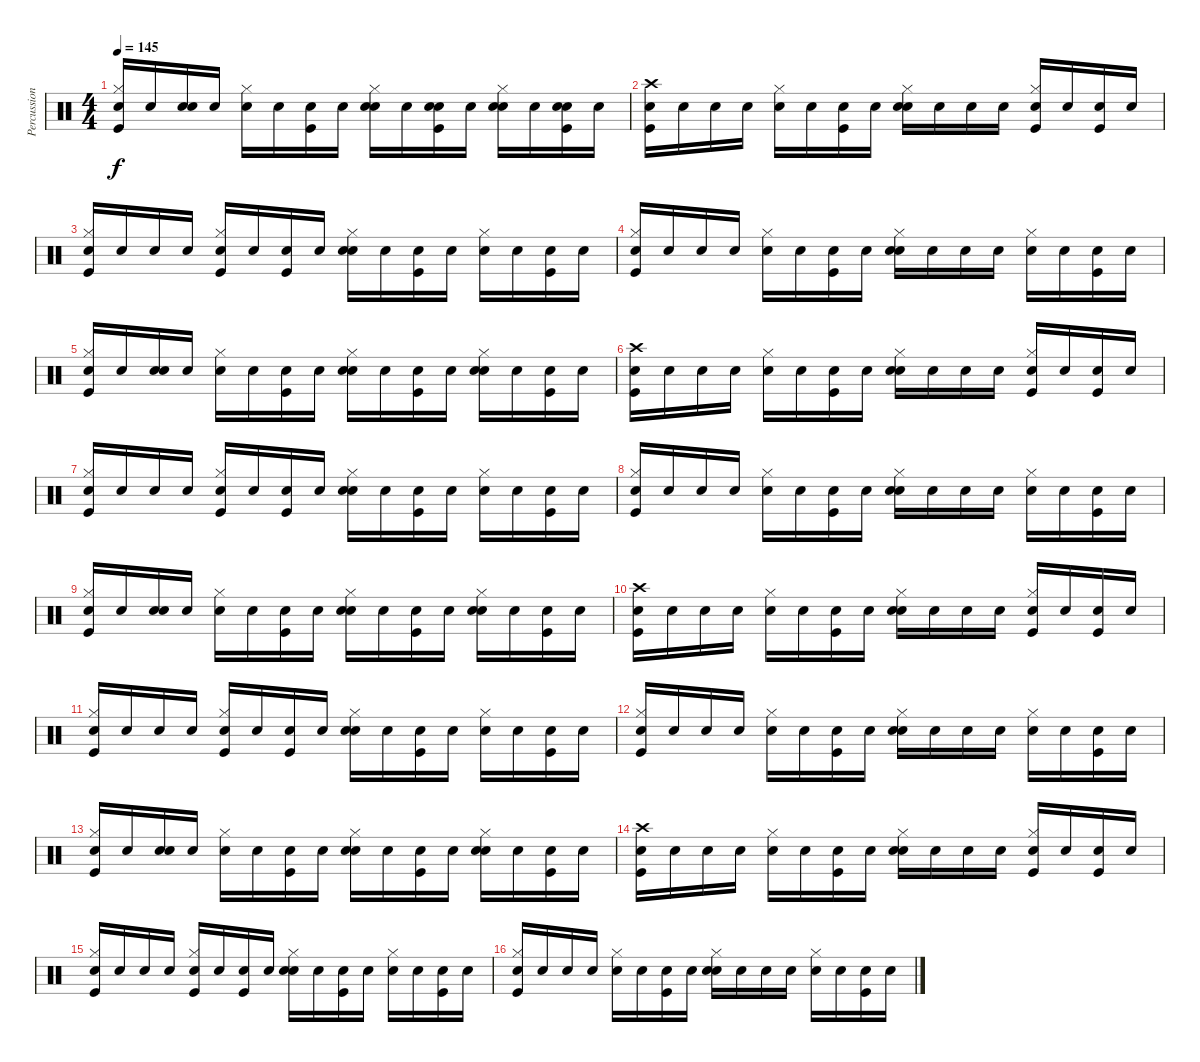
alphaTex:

\track ("Percussion" "Percussion") {instrument percussion}
\staff {score}
\articulation defaults
\ts (4 4)
\tempo 145
\clef neutral
\ks c
("Snare (hit)" "Hi-Hat (closed)" "Kick (hit)").16{dy f} "Snare (hit)".16 ("Snare (hit)" "Snare (hit) 2").16 "Snare (hit)".16 ("Snare (hit)" "Hi-Hat (closed)").16 "Snare (hit)".16 ("Snare (hit)" "Kick (hit)").16 "Snare (hit)".16 ("Snare (hit)" "Snare (hit) 2" "Hi-Hat (closed)").16 "Snare (hit)".16 ("Snare (hit)" "Snare (hit) 2" "Kick (hit)").16 "Snare (hit)".16 ("Snare (hit)" "Snare (hit) 2" "Hi-Hat (closed)").16 "Snare (hit)".16 ("Snare (hit)" "Snare (hit) 2" "Kick (hit)").16 "Snare (hit)".16 |
("Snare (hit)" "Crash high (hit)" "Kick (hit)").16 "Snare (hit)".16 "Snare (hit)".16 "Snare (hit)".16 ("Snare (hit)" "Hi-Hat (closed)").16 "Snare (hit)".16 ("Snare (hit)" "Kick (hit)").16 "Snare (hit)".16 ("Snare (hit)" "Hi-Hat (closed)" "Snare (hit) 2").16 "Snare (hit)".16 "Snare (hit)".16 "Snare (hit)".16 ("Snare (hit)" "Hi-Hat (closed)" "Kick (hit)").16 "Snare (hit)".16 ("Snare (hit)" "Kick (hit)").16 "Snare (hit)".16 |
("Snare (hit)" "Hi-Hat (closed)" "Kick (hit)").16 "Snare (hit)".16 "Snare (hit)".16 "Snare (hit)".16 ("Snare (hit)" "Hi-Hat (closed)" "Kick (hit)").16 "Snare (hit)".16 ("Snare (hit)" "Kick (hit)").16 "Snare (hit)".16 ("Snare (hit)" "Hi-Hat (closed)" "Snare (hit) 2").16 "Snare (hit)".16 ("Snare (hit)" "Kick (hit)").16 "Snare (hit)".16 ("Snare (hit)" "Hi-Hat (closed)").16 "Snare (hit)".16 ("Snare (hit)" "Kick (hit)").16 "Snare (hit)".16 |
("Snare (hit)" "Hi-Hat (closed)" "Kick (hit)").16 "Snare (hit)".16 "Snare (hit)".16 "Snare (hit)".16 ("Snare (hit)" "Hi-Hat (closed)").16 "Snare (hit)".16 ("Snare (hit)" "Kick (hit)").16 "Snare (hit)".16 ("Snare (hit)" "Hi-Hat (closed)" "Snare (hit) 2").16 "Snare (hit)".16 "Snare (hit)".16 "Snare (hit)".16 ("Snare (hit)" "Hi-Hat (closed)").16 "Snare (hit)".16 ("Snare (hit)" "Kick (hit)").16 "Snare (hit)".16 |
("Snare (hit)" "Hi-Hat (closed)" "Kick (hit)").16 "Snare (hit)".16 ("Snare (hit)" "Snare (hit) 2").16 "Snare (hit)".16 ("Snare (hit)" "Hi-Hat (closed)").16 "Snare (hit)".16 ("Snare (hit)" "Kick (hit)").16 "Snare (hit)".16 ("Snare (hit)" "Snare (hit) 2" "Hi-Hat (closed)").16 "Snare (hit)".16 ("Snare (hit)" "Kick (hit)").16 "Snare (hit)".16 ("Snare (hit)" "Snare (hit) 2" "Hi-Hat (closed)").16 "Snare (hit)".16 ("Snare (hit)" "Kick (hit)").16 "Snare (hit)".16 |
("Snare (hit)" "Crash high (hit)" "Kick (hit)").16 "Snare (hit)".16 "Snare (hit)".16 "Snare (hit)".16 ("Snare (hit)" "Hi-Hat (closed)").16 "Snare (hit)".16 ("Snare (hit)" "Kick (hit)").16 "Snare (hit)".16 ("Snare (hit)" "Hi-Hat (closed)" "Snare (hit) 2").16 "Snare (hit)".16 "Snare (hit)".16 "Snare (hit)".16 ("Snare (hit)" "Hi-Hat (closed)" "Kick (hit)").16 "Snare (hit)".16 ("Snare (hit)" "Kick (hit)").16 "Snare (hit)".16 |
("Snare (hit)" "Hi-Hat (closed)" "Kick (hit)").16 "Snare (hit)".16 "Snare (hit)".16 "Snare (hit)".16 ("Snare (hit)" "Hi-Hat (closed)" "Kick (hit)").16 "Snare (hit)".16 ("Snare (hit)" "Kick (hit)").16 "Snare (hit)".16 ("Snare (hit)" "Hi-Hat (closed)" "Snare (hit) 2").16 "Snare (hit)".16 ("Snare (hit)" "Kick (hit)").16 "Snare (hit)".16 ("Snare (hit)" "Hi-Hat (closed)").16 "Snare (hit)".16 ("Snare (hit)" "Kick (hit)").16 "Snare (hit)".16 |
("Snare (hit)" "Hi-Hat (closed)" "Kick (hit)").16 "Snare (hit)".16 "Snare (hit)".16 "Snare (hit)".16 ("Snare (hit)" "Hi-Hat (closed)").16 "Snare (hit)".16 ("Snare (hit)" "Kick (hit)").16 "Snare (hit)".16 ("Snare (hit)" "Hi-Hat (closed)" "Snare (hit) 2").16 "Snare (hit)".16 "Snare (hit)".16 "Snare (hit)".16 ("Snare (hit)" "Hi-Hat (closed)").16 "Snare (hit)".16 ("Snare (hit)" "Kick (hit)").16 "Snare (hit)".16 |
("Snare (hit)" "Hi-Hat (closed)" "Kick (hit)").16 "Snare (hit)".16 ("Snare (hit)" "Snare (hit) 2").16 "Snare (hit)".16 ("Snare (hit)" "Hi-Hat (closed)").16 "Snare (hit)".16 ("Snare (hit)" "Kick (hit)").16 "Snare (hit)".16 ("Snare (hit)" "Snare (hit) 2" "Hi-Hat (closed)").16 "Snare (hit)".16 ("Snare (hit)" "Kick (hit)").16 "Snare (hit)".16 ("Snare (hit)" "Snare (hit) 2" "Hi-Hat (closed)").16 "Snare (hit)".16 ("Snare (hit)" "Kick (hit)").16 "Snare (hit)".16 |
("Snare (hit)" "Crash high (hit)" "Kick (hit)").16 "Snare (hit)".16 "Snare (hit)".16 "Snare (hit)".16 ("Snare (hit)" "Hi-Hat (closed)").16 "Snare (hit)".16 ("Snare (hit)" "Kick (hit)").16 "Snare (hit)".16 ("Snare (hit)" "Hi-Hat (closed)" "Snare (hit) 2").16 "Snare (hit)".16 "Snare (hit)".16 "Snare (hit)".16 ("Snare (hit)" "Hi-Hat (closed)" "Kick (hit)").16 "Snare (hit)".16 ("Snare (hit)" "Kick (hit)").16 "Snare (hit)".16 |
("Snare (hit)" "Hi-Hat (closed)" "Kick (hit)").16 "Snare (hit)".16 "Snare (hit)".16 "Snare (hit)".16 ("Snare (hit)" "Hi-Hat (closed)" "Kick (hit)").16 "Snare (hit)".16 ("Snare (hit)" "Kick (hit)").16 "Snare (hit)".16 ("Snare (hit)" "Hi-Hat (closed)" "Snare (hit) 2").16 "Snare (hit)".16 ("Snare (hit)" "Kick (hit)").16 "Snare (hit)".16 ("Snare (hit)" "Hi-Hat (closed)").16 "Snare (hit)".16 ("Snare (hit)" "Kick (hit)").16 "Snare (hit)".16 |
("Snare (hit)" "Hi-Hat (closed)" "Kick (hit)").16 "Snare (hit)".16 "Snare (hit)".16 "Snare (hit)".16 ("Snare (hit)" "Hi-Hat (closed)").16 "Snare (hit)".16 ("Snare (hit)" "Kick (hit)").16 "Snare (hit)".16 ("Snare (hit)" "Hi-Hat (closed)" "Snare (hit) 2").16 "Snare (hit)".16 "Snare (hit)".16 "Snare (hit)".16 ("Snare (hit)" "Hi-Hat (closed)").16 "Snare (hit)".16 ("Snare (hit)" "Kick (hit)").16 "Snare (hit)".16 |
("Snare (hit)" "Hi-Hat (closed)" "Kick (hit)").16 "Snare (hit)".16 ("Snare (hit)" "Snare (hit) 2").16 "Snare (hit)".16 ("Snare (hit)" "Hi-Hat (closed)").16 "Snare (hit)".16 ("Snare (hit)" "Kick (hit)").16 "Snare (hit)".16 ("Snare (hit)" "Snare (hit) 2" "Hi-Hat (closed)").16 "Snare (hit)".16 ("Snare (hit)" "Kick (hit)").16 "Snare (hit)".16 ("Snare (hit)" "Snare (hit) 2" "Hi-Hat (closed)").16 "Snare (hit)".16 ("Snare (hit)" "Kick (hit)").16 "Snare (hit)".16 |
("Snare (hit)" "Crash high (hit)" "Kick (hit)").16 "Snare (hit)".16 "Snare (hit)".16 "Snare (hit)".16 ("Snare (hit)" "Hi-Hat (closed)").16 "Snare (hit)".16 ("Snare (hit)" "Kick (hit)").16 "Snare (hit)".16 ("Snare (hit)" "Hi-Hat (closed)" "Snare (hit) 2").16 "Snare (hit)".16 "Snare (hit)".16 "Snare (hit)".16 ("Snare (hit)" "Hi-Hat (closed)" "Kick (hit)").16 "Snare (hit)".16 ("Snare (hit)" "Kick (hit)").16 "Snare (hit)".16 |
("Snare (hit)" "Hi-Hat (closed)" "Kick (hit)").16 "Snare (hit)".16 "Snare (hit)".16 "Snare (hit)".16 ("Snare (hit)" "Hi-Hat (closed)" "Kick (hit)").16 "Snare (hit)".16 ("Snare (hit)" "Kick (hit)").16 "Snare (hit)".16 ("Snare (hit)" "Hi-Hat (closed)" "Snare (hit) 2").16 "Snare (hit)".16 ("Snare (hit)" "Kick (hit)").16 "Snare (hit)".16 ("Snare (hit)" "Hi-Hat (closed)").16 "Snare (hit)".16 ("Snare (hit)" "Kick (hit)").16 "Snare (hit)".16 |
("Snare (hit)" "Hi-Hat (closed)" "Kick (hit)").16 "Snare (hit)".16 "Snare (hit)".16 "Snare (hit)".16 ("Snare (hit)" "Hi-Hat (closed)").16 "Snare (hit)".16 ("Snare (hit)" "Kick (hit)").16 "Snare (hit)".16 ("Snare (hit)" "Hi-Hat (closed)" "Snare (hit) 2").16 "Snare (hit)".16 "Snare (hit)".16 "Snare (hit)".16 ("Snare (hit)" "Hi-Hat (closed)").16 "Snare (hit)".16 ("Snare (hit)" "Kick (hit)").16 "Snare (hit)".16
